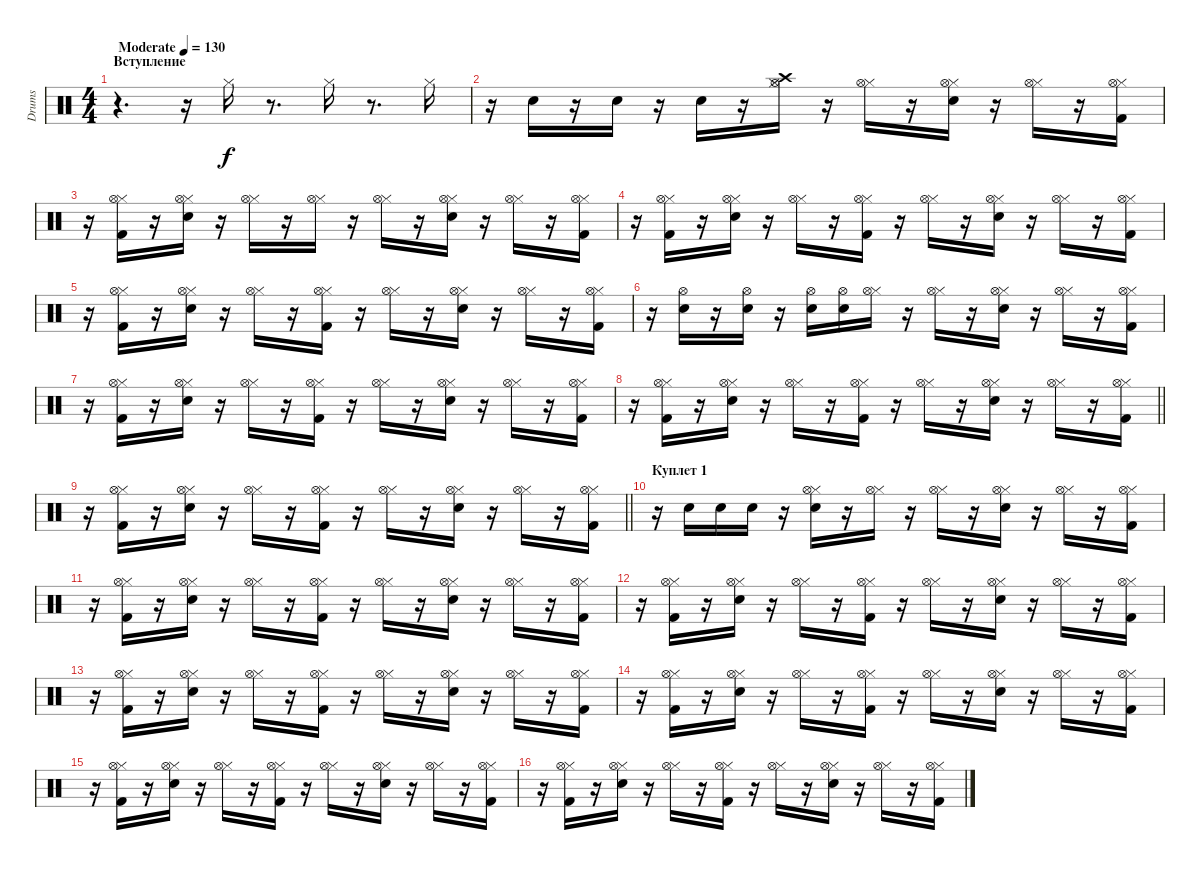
\track ("Drums" "Drums") {instrument percussion}
\staff {score}
\articulation defaults
\ts (4 4)
\section ("" "Вступление")
\tempo (130 "Moderate")
\clef neutral
\ks c
r.4{d dy f} r.16 "Hi-Hat (closed)".16 r.8{d} "Hi-Hat (closed)".16 r.8{d} "Hi-Hat (closed)".16 |
r.16 "Snare (hit) 2".16 r.16 "Snare (hit) 2".16 r.16 "Snare (hit) 2".16 r.16 ("Crash high (hit)" "Hi-Hat (closed)" "Hi-Hat (open)").16 r.16 ("Hi-Hat (closed)" "Hi-Hat (open)").16 r.16 ("Snare (hit) 2" "Hi-Hat (closed)" "Hi-Hat (open)").16 r.16 ("Hi-Hat (closed)" "Hi-Hat (open)").16 r.16 ("Kick (hit) 2" "Hi-Hat (closed)" "Hi-Hat (open)").16 |
r.16 ("Kick (hit) 2" "Hi-Hat (closed)" "Hi-Hat (open)").16 r.16 ("Snare (hit) 2" "Hi-Hat (closed)" "Hi-Hat (open)").16 r.16 ("Hi-Hat (closed)" "Hi-Hat (open)").16 r.16 ("Hi-Hat (closed)" "Hi-Hat (open)").16 r.16 ("Hi-Hat (closed)" "Hi-Hat (open)").16 r.16 ("Snare (hit) 2" "Hi-Hat (closed)" "Hi-Hat (open)").16 r.16 ("Hi-Hat (closed)" "Hi-Hat (open)").16 r.16 ("Kick (hit) 2" "Hi-Hat (closed)" "Hi-Hat (open)").16 |
r.16 ("Kick (hit) 2" "Hi-Hat (closed)" "Hi-Hat (open)").16 r.16 ("Snare (hit) 2" "Hi-Hat (closed)" "Hi-Hat (open)").16 r.16 ("Hi-Hat (closed)" "Hi-Hat (open)").16 r.16 ("Kick (hit) 2" "Hi-Hat (closed)" "Hi-Hat (open)").16 r.16 ("Hi-Hat (closed)" "Hi-Hat (open)").16 r.16 ("Snare (hit) 2" "Hi-Hat (closed)" "Hi-Hat (open)").16 r.16 ("Hi-Hat (closed)" "Hi-Hat (open)").16 r.16 ("Kick (hit) 2" "Hi-Hat (closed)" "Hi-Hat (open)").16 |
r.16 ("Kick (hit) 2" "Hi-Hat (closed)" "Hi-Hat (open)").16 r.16 ("Snare (hit) 2" "Hi-Hat (closed)" "Hi-Hat (open)").16 r.16 ("Hi-Hat (closed)" "Hi-Hat (open)").16 r.16 ("Kick (hit) 2" "Hi-Hat (closed)" "Hi-Hat (open)").16 r.16 ("Hi-Hat (closed)" "Hi-Hat (open)").16 r.16 ("Snare (hit) 2" "Hi-Hat (closed)" "Hi-Hat (open)").16 r.16 ("Hi-Hat (closed)" "Hi-Hat (open)").16 r.16 ("Kick (hit) 2" "Hi-Hat (closed)" "Hi-Hat (open)").16 |
r.16 ("Snare (hit) 2" "Hi-Hat (open)").16 r.16 ("Snare (hit) 2" "Hi-Hat (open)").16 r.16 ("Snare (hit) 2" "Hi-Hat (open)").16 ("Snare (hit) 2" "Hi-Hat (open)").16 ("Hi-Hat (closed)" "Hi-Hat (open)").16 r.16 ("Hi-Hat (closed)" "Hi-Hat (open)").16 r.16 ("Snare (hit) 2" "Hi-Hat (closed)" "Hi-Hat (open)").16 r.16 ("Hi-Hat (closed)" "Hi-Hat (open)").16 r.16 ("Kick (hit) 2" "Hi-Hat (closed)" "Hi-Hat (open)").16 |
r.16 ("Kick (hit) 2" "Hi-Hat (closed)" "Hi-Hat (open)").16 r.16 ("Snare (hit) 2" "Hi-Hat (closed)" "Hi-Hat (open)").16 r.16 ("Hi-Hat (closed)" "Hi-Hat (open)").16 r.16 ("Kick (hit) 2" "Hi-Hat (closed)" "Hi-Hat (open)").16 r.16 ("Hi-Hat (closed)" "Hi-Hat (open)").16 r.16 ("Snare (hit) 2" "Hi-Hat (closed)" "Hi-Hat (open)").16 r.16 ("Hi-Hat (closed)" "Hi-Hat (open)").16 r.16 ("Kick (hit) 2" "Hi-Hat (closed)" "Hi-Hat (open)").16 |
\barLineRight lightlight
r.16 ("Kick (hit) 2" "Hi-Hat (closed)" "Hi-Hat (open)").16 r.16 ("Snare (hit) 2" "Hi-Hat (closed)" "Hi-Hat (open)").16 r.16 ("Hi-Hat (closed)" "Hi-Hat (open)").16 r.16 ("Kick (hit) 2" "Hi-Hat (closed)" "Hi-Hat (open)").16 r.16 ("Hi-Hat (closed)" "Hi-Hat (open)").16 r.16 ("Snare (hit) 2" "Hi-Hat (closed)" "Hi-Hat (open)").16 r.16 ("Hi-Hat (closed)" "Hi-Hat (open)").16 r.16 ("Kick (hit) 2" "Hi-Hat (closed)" "Hi-Hat (open)").16 |
\section ("" "")
\barLineRight lightlight
r.16 ("Kick (hit) 2" "Hi-Hat (closed)" "Hi-Hat (open)").16 r.16 ("Snare (hit) 2" "Hi-Hat (closed)" "Hi-Hat (open)").16 r.16 ("Hi-Hat (closed)" "Hi-Hat (open)").16 r.16 ("Kick (hit) 2" "Hi-Hat (closed)" "Hi-Hat (open)").16 r.16 ("Hi-Hat (closed)" "Hi-Hat (open)").16 r.16 ("Snare (hit) 2" "Hi-Hat (closed)" "Hi-Hat (open)").16 r.16 ("Hi-Hat (closed)" "Hi-Hat (open)").16 r.16 ("Kick (hit) 2" "Hi-Hat (closed)" "Hi-Hat (open)").16 |
\section ("" "Куплет 1")
r.16 "Snare (hit) 2".16 "Snare (hit) 2".16 "Snare (hit) 2".16 r.16 ("Snare (hit) 2" "Hi-Hat (closed)" "Hi-Hat (open)").16 r.16 ("Hi-Hat (closed)" "Hi-Hat (open)").16 r.16 ("Hi-Hat (closed)" "Hi-Hat (open)").16 r.16 ("Snare (hit) 2" "Hi-Hat (closed)" "Hi-Hat (open)").16 r.16 ("Hi-Hat (closed)" "Hi-Hat (open)").16 r.16 ("Kick (hit) 2" "Hi-Hat (closed)" "Hi-Hat (open)").16 |
r.16 ("Kick (hit) 2" "Hi-Hat (closed)" "Hi-Hat (open)").16 r.16 ("Snare (hit) 2" "Hi-Hat (closed)" "Hi-Hat (open)").16 r.16 ("Hi-Hat (closed)" "Hi-Hat (open)").16 r.16 ("Kick (hit) 2" "Hi-Hat (closed)" "Hi-Hat (open)").16 r.16 ("Hi-Hat (closed)" "Hi-Hat (open)").16 r.16 ("Snare (hit) 2" "Hi-Hat (closed)" "Hi-Hat (open)").16 r.16 ("Hi-Hat (closed)" "Hi-Hat (open)").16 r.16 ("Kick (hit) 2" "Hi-Hat (closed)" "Hi-Hat (open)").16 |
r.16 ("Kick (hit) 2" "Hi-Hat (closed)" "Hi-Hat (open)").16 r.16 ("Snare (hit) 2" "Hi-Hat (closed)" "Hi-Hat (open)").16 r.16 ("Hi-Hat (closed)" "Hi-Hat (open)").16 r.16 ("Kick (hit) 2" "Hi-Hat (closed)" "Hi-Hat (open)").16 r.16 ("Hi-Hat (closed)" "Hi-Hat (open)").16 r.16 ("Snare (hit) 2" "Hi-Hat (closed)" "Hi-Hat (open)").16 r.16 ("Hi-Hat (closed)" "Hi-Hat (open)").16 r.16 ("Kick (hit) 2" "Hi-Hat (closed)" "Hi-Hat (open)").16 |
r.16 ("Kick (hit) 2" "Hi-Hat (closed)" "Hi-Hat (open)").16 r.16 ("Snare (hit) 2" "Hi-Hat (closed)" "Hi-Hat (open)").16 r.16 ("Hi-Hat (closed)" "Hi-Hat (open)").16 r.16 ("Kick (hit) 2" "Hi-Hat (closed)" "Hi-Hat (open)").16 r.16 ("Hi-Hat (closed)" "Hi-Hat (open)").16 r.16 ("Snare (hit) 2" "Hi-Hat (closed)" "Hi-Hat (open)").16 r.16 ("Hi-Hat (closed)" "Hi-Hat (open)").16 r.16 ("Kick (hit) 2" "Hi-Hat (closed)" "Hi-Hat (open)").16 |
r.16 ("Kick (hit) 2" "Hi-Hat (closed)" "Hi-Hat (open)").16 r.16 ("Snare (hit) 2" "Hi-Hat (closed)" "Hi-Hat (open)").16 r.16 ("Hi-Hat (closed)" "Hi-Hat (open)").16 r.16 ("Kick (hit) 2" "Hi-Hat (closed)" "Hi-Hat (open)").16 r.16 ("Hi-Hat (closed)" "Hi-Hat (open)").16 r.16 ("Snare (hit) 2" "Hi-Hat (closed)" "Hi-Hat (open)").16 r.16 ("Hi-Hat (closed)" "Hi-Hat (open)").16 r.16 ("Kick (hit) 2" "Hi-Hat (closed)" "Hi-Hat (open)").16 |
r.16 ("Kick (hit) 2" "Hi-Hat (closed)" "Hi-Hat (open)").16 r.16 ("Snare (hit) 2" "Hi-Hat (closed)" "Hi-Hat (open)").16 r.16 ("Hi-Hat (closed)" "Hi-Hat (open)").16 r.16 ("Kick (hit) 2" "Hi-Hat (closed)" "Hi-Hat (open)").16 r.16 ("Hi-Hat (closed)" "Hi-Hat (open)").16 r.16 ("Snare (hit) 2" "Hi-Hat (closed)" "Hi-Hat (open)").16 r.16 ("Hi-Hat (closed)" "Hi-Hat (open)").16 r.16 ("Kick (hit) 2" "Hi-Hat (closed)" "Hi-Hat (open)").16 |
r.16 ("Kick (hit) 2" "Hi-Hat (closed)" "Hi-Hat (open)").16 r.16 ("Snare (hit) 2" "Hi-Hat (closed)" "Hi-Hat (open)").16 r.16 ("Hi-Hat (closed)" "Hi-Hat (open)").16 r.16 ("Kick (hit) 2" "Hi-Hat (closed)" "Hi-Hat (open)").16 r.16 ("Hi-Hat (closed)" "Hi-Hat (open)").16 r.16 ("Snare (hit) 2" "Hi-Hat (closed)" "Hi-Hat (open)").16 r.16 ("Hi-Hat (closed)" "Hi-Hat (open)").16 r.16 ("Kick (hit) 2" "Hi-Hat (closed)" "Hi-Hat (open)").16
